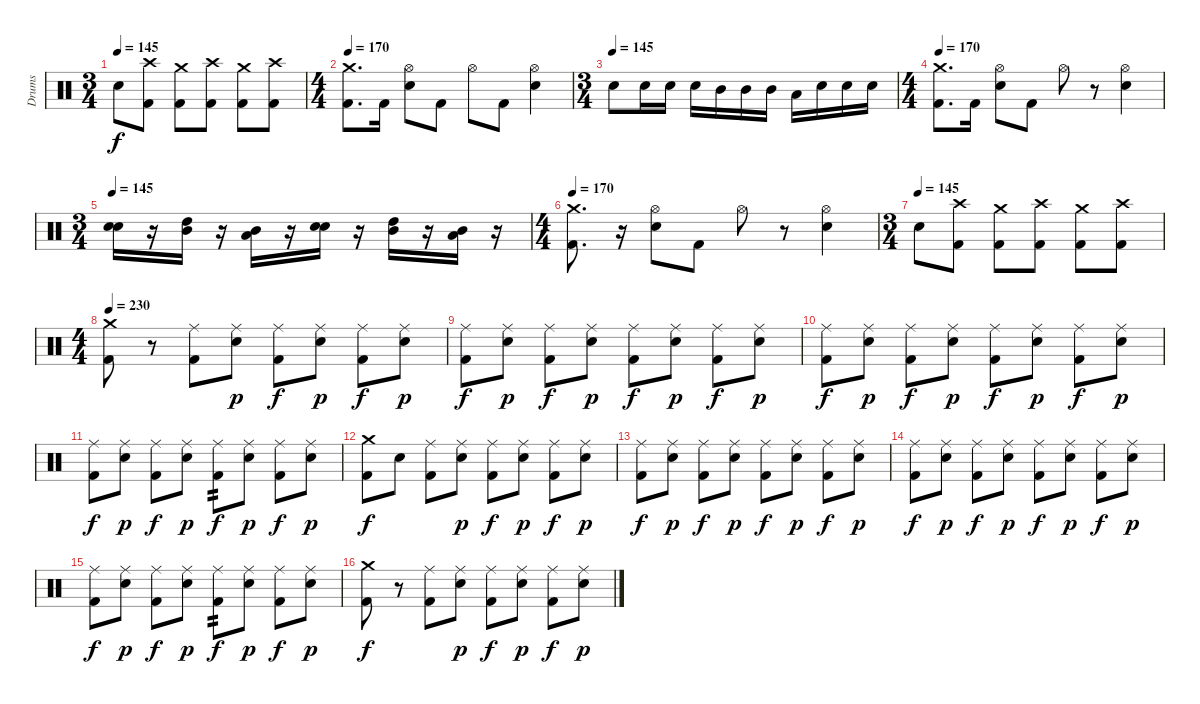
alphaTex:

\track ("Drums" "Drums") {instrument percussion}
\staff {score}
\articulation defaults
\ts (3 4)
\tempo 145
\clef neutral
\ks c "Snare (hit) 2".8{dy f}
("Crash high (hit)" "Kick (hit) 2").8 ("Crash medium (hit)" "Kick (hit) 2").8 ("Crash high (hit)" "Kick (hit) 2").8 ("Crash medium (hit)" "Kick (hit) 2").8 ("Crash high (hit)" "Kick (hit) 2").8 |
\ts (4 4)
\tempo 170
("Crash medium (hit)" "Kick (hit) 2").8{d} "Kick (hit) 2".16 ("Hi-Hat (open)" "Snare (hit) 2").8 "Kick (hit) 2".8 "Hi-Hat (open)".8 "Kick (hit) 2".8 ("Hi-Hat (open)" "Snare (hit) 2").4 |
\ts (3 4)
\tempo (145)
"Snare (hit) 2".8 "Snare (hit) 2".16 "Snare (hit) 2".16 "Snare (hit) 2".16 "Mid Tom (hit)".16 "Mid Tom (hit)".16 "Mid Tom (hit)".16 "Low Tom (hit)".16 "Snare (hit) 2".16 "Snare (hit) 2".16 "Snare (hit) 2".16 |
\ts (4 4)
\tempo 170
("Crash medium (hit)" "Kick (hit) 2").8{d} "Kick (hit) 2".16 ("Hi-Hat (open)" "Snare (hit) 2").8 "Kick (hit) 2".8 "Hi-Hat (open)".8 r.8 ("Hi-Hat (open)" "Snare (hit) 2").4 |
\ts (3 4)
\tempo 145
("Snare (hit) 2" "Snare (hit) 2").16 r.16 ("High Tom (hit)" "Mid Tom (hit)").16 r.16 ("Mid Tom (hit)" "Low Tom (hit)").16 r.16 ("Snare (hit) 2" "Snare (hit) 2").16 r.16 ("Mid Tom (hit)" "High Tom (hit)").16 r.16 ("Mid Tom (hit)" "Low Tom (hit)").16 r.16 |
\ts (4 4)
\tempo 170
("Crash medium (hit)" "Kick (hit) 2").8{d} r.16 ("Hi-Hat (open)" "Snare (hit) 2").8 "Kick (hit) 2".8 "Hi-Hat (open)".8 r.8 ("Hi-Hat (open)" "Snare (hit) 2").4 |
\ts (3 4)
\tempo (145)
"Snare (hit) 2".8 ("Crash high (hit)" "Kick (hit) 2").8 ("Crash medium (hit)" "Kick (hit) 2").8 ("Crash high (hit)" "Kick (hit) 2").8 ("Crash medium (hit)" "Kick (hit) 2").8 ("Crash high (hit)" "Kick (hit) 2").8 |
\ts (4 4)
\tempo 230
("Crash medium (hit)" "Kick (hit) 2").8 r.8 ("Ride (middle)" "Kick (hit) 2").8 ("Ride (middle)" "Snare (hit) 2").8{dy p} ("Ride (middle)" "Kick (hit) 2").8{dy f} ("Ride (middle)" "Snare (hit) 2").8{dy p} ("Ride (middle)" "Kick (hit) 2").8{dy f} ("Ride (middle)" "Snare (hit) 2").8{dy p} |
("Ride (middle)" "Kick (hit) 2").8{dy f} ("Ride (middle)" "Snare (hit) 2").8{dy p} ("Ride (middle)" "Kick (hit) 2").8{dy f} ("Ride (middle)" "Snare (hit) 2").8{dy p} ("Ride (middle)" "Kick (hit) 2").8{dy f} ("Ride (middle)" "Snare (hit) 2").8{dy p} ("Ride (middle)" "Kick (hit) 2").8{dy f} ("Ride (middle)" "Snare (hit) 2").8{dy p} |
("Ride (middle)" "Kick (hit) 2").8{dy f} ("Ride (middle)" "Snare (hit) 2").8{dy p} ("Ride (middle)" "Kick (hit) 2").8{dy f} ("Ride (middle)" "Snare (hit) 2").8{dy p} ("Ride (middle)" "Kick (hit) 2").8{dy f} ("Ride (middle)" "Snare (hit) 2").8{dy p} ("Ride (middle)" "Kick (hit) 2").8{dy f} ("Ride (middle)" "Snare (hit) 2").8{dy p} |
("Ride (middle)" "Kick (hit) 2").8{dy f} ("Ride (middle)" "Snare (hit) 2").8{dy p} ("Ride (middle)" "Kick (hit) 2").8{dy f} ("Ride (middle)" "Snare (hit) 2").8{dy p} ("Ride (middle)" "Kick (hit) 2").8{tp 2 dy f} ("Ride (middle)" "Snare (hit) 2").8{dy p} ("Ride (middle)" "Kick (hit) 2").8{dy f} ("Ride (middle)" "Snare (hit) 2").8{dy p} |
("Crash medium (hit)" "Kick (hit) 2").8{dy f} "Snare (hit) 2".8 ("Ride (middle)" "Kick (hit) 2").8 ("Ride (middle)" "Snare (hit) 2").8{dy p} ("Ride (middle)" "Kick (hit) 2").8{dy f} ("Ride (middle)" "Snare (hit) 2").8{dy p} ("Ride (middle)" "Kick (hit) 2").8{dy f} ("Ride (middle)" "Snare (hit) 2").8{dy p} |
("Ride (middle)" "Kick (hit) 2").8{dy f} ("Ride (middle)" "Snare (hit) 2").8{dy p} ("Ride (middle)" "Kick (hit) 2").8{dy f} ("Ride (middle)" "Snare (hit) 2").8{dy p} ("Ride (middle)" "Kick (hit) 2").8{dy f} ("Ride (middle)" "Snare (hit) 2").8{dy p} ("Ride (middle)" "Kick (hit) 2").8{dy f} ("Ride (middle)" "Snare (hit) 2").8{dy p} |
("Ride (middle)" "Kick (hit) 2").8{dy f} ("Ride (middle)" "Snare (hit) 2").8{dy p} ("Ride (middle)" "Kick (hit) 2").8{dy f} ("Ride (middle)" "Snare (hit) 2").8{dy p} ("Ride (middle)" "Kick (hit) 2").8{dy f} ("Ride (middle)" "Snare (hit) 2").8{dy p} ("Ride (middle)" "Kick (hit) 2").8{dy f} ("Ride (middle)" "Snare (hit) 2").8{dy p} |
("Ride (middle)" "Kick (hit) 2").8{dy f} ("Ride (middle)" "Snare (hit) 2").8{dy p} ("Ride (middle)" "Kick (hit) 2").8{dy f} ("Ride (middle)" "Snare (hit) 2").8{dy p} ("Ride (middle)" "Kick (hit) 2").8{tp 2 dy f} ("Ride (middle)" "Snare (hit) 2").8{dy p} ("Ride (middle)" "Kick (hit) 2").8{dy f} ("Ride (middle)" "Snare (hit) 2").8{dy p} |
("Crash medium (hit)" "Kick (hit) 2").8{dy f} r.8 ("Ride (middle)" "Kick (hit) 2").8 ("Ride (middle)" "Snare (hit) 2").8{dy p} ("Ride (middle)" "Kick (hit) 2").8{dy f} ("Ride (middle)" "Snare (hit) 2").8{dy p} ("Ride (middle)" "Kick (hit) 2").8{dy f} ("Ride (middle)" "Snare (hit) 2").8{dy p}
